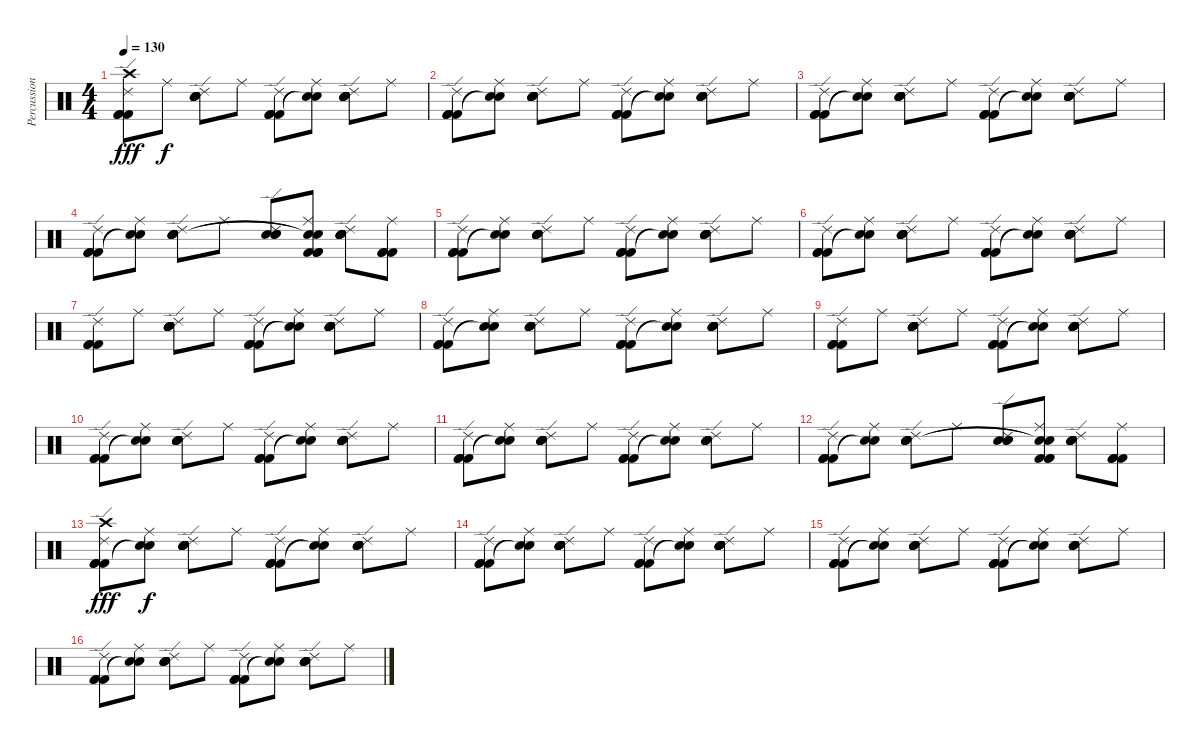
\track ("Percussion" "Percussion") {instrument percussion}
\staff {score}
\articulation defaults
\ts (4 4)
\tempo 130
\clef neutral
\ks c
("Ride (edge) 2" "Kick (hit) 2" "Kick (hit) 2" "Kick (hit) 2" "Crash high (hit)").8{dy fff} "Ride (middle)".8{dy f} ("Ride (edge) 2" "Electric Snare (hit)" "Electric Snare (hit)" "Electric Snare (hit)" "Hand Clap (hit)" "Hand Clap (hit)").8 "Ride (middle)".8 ("Ride (edge) 2" "Kick (hit) 2" "Kick (hit) 2" "Kick (hit) 2").8 ("Ride (middle)" "Snare (hit)"{t} "Snare (hit)"{t}).8 ("Ride (edge) 2" "Electric Snare (hit)" "Electric Snare (hit)" "Electric Snare (hit)" "Hand Clap (hit)" "Hand Clap (hit)").8 "Ride (middle)".8 |
("Ride (edge) 2" "Kick (hit) 2" "Kick (hit) 2" "Kick (hit) 2").8 ("Ride (middle)" "Snare (hit)"{t} "Snare (hit)"{t}).8 ("Ride (edge) 2" "Electric Snare (hit)" "Electric Snare (hit)" "Electric Snare (hit)" "Hand Clap (hit)" "Hand Clap (hit)").8 "Ride (middle)".8 ("Ride (edge) 2" "Kick (hit) 2" "Kick (hit) 2" "Kick (hit) 2").8 ("Ride (middle)" "Snare (hit)"{t} "Snare (hit)"{t}).8 ("Ride (edge) 2" "Electric Snare (hit)" "Electric Snare (hit)" "Electric Snare (hit)" "Hand Clap (hit)" "Hand Clap (hit)").8 "Ride (middle)".8 |
("Ride (edge) 2" "Kick (hit) 2" "Kick (hit) 2" "Kick (hit) 2").8 ("Ride (middle)" "Snare (hit)"{t} "Snare (hit)"{t}).8 ("Ride (edge) 2" "Electric Snare (hit)" "Electric Snare (hit)" "Electric Snare (hit)" "Hand Clap (hit)" "Hand Clap (hit)").8 "Ride (middle)".8 ("Ride (edge) 2" "Kick (hit) 2" "Kick (hit) 2" "Kick (hit) 2").8 ("Ride (middle)" "Snare (hit)"{t} "Snare (hit)"{t}).8 ("Ride (edge) 2" "Electric Snare (hit)" "Electric Snare (hit)" "Electric Snare (hit)" "Hand Clap (hit)" "Hand Clap (hit)").8 "Ride (middle)".8 |
("Ride (edge) 2" "Kick (hit) 2" "Kick (hit) 2" "Kick (hit) 2").8 ("Ride (middle)" "Snare (hit)"{t} "Snare (hit)"{t}).8 ("Ride (edge) 2" "Electric Snare (hit)" "Electric Snare (hit)" "Electric Snare (hit)" "Hand Clap (hit)" "Hand Clap (hit)").8 "Ride (middle)".8 ("Ride (edge) 2" "Electric Snare (hit)" "Electric Snare (hit)" "Electric Snare (hit)").8 ("Ride (middle)" "Kick (hit) 2" "Kick (hit) 2" "Kick (hit) 2" "Snare (hit)"{t} "Snare (hit)"{t}).8 ("Ride (edge) 2" "Electric Snare (hit)" "Electric Snare (hit)" "Electric Snare (hit)" "Hand Clap (hit)" "Hand Clap (hit)").8 ("Ride (middle)" "Kick (hit) 2" "Kick (hit) 2" "Kick (hit) 2").8 |
("Ride (edge) 2" "Kick (hit) 2" "Kick (hit) 2" "Kick (hit) 2").8 ("Ride (middle)" "Snare (hit)"{t} "Snare (hit)"{t}).8 ("Ride (edge) 2" "Electric Snare (hit)" "Electric Snare (hit)" "Electric Snare (hit)" "Hand Clap (hit)" "Hand Clap (hit)").8 "Ride (middle)".8 ("Ride (edge) 2" "Kick (hit) 2" "Kick (hit) 2" "Kick (hit) 2").8 ("Ride (middle)" "Snare (hit)"{t} "Snare (hit)"{t}).8 ("Ride (edge) 2" "Electric Snare (hit)" "Electric Snare (hit)" "Electric Snare (hit)" "Hand Clap (hit)" "Hand Clap (hit)").8 "Ride (middle)".8 |
("Ride (edge) 2" "Kick (hit) 2" "Kick (hit) 2" "Kick (hit) 2").8 ("Ride (middle)" "Snare (hit)"{t} "Snare (hit)"{t}).8 ("Ride (edge) 2" "Electric Snare (hit)" "Electric Snare (hit)" "Electric Snare (hit)" "Hand Clap (hit)" "Hand Clap (hit)").8 "Ride (middle)".8 ("Ride (edge) 2" "Kick (hit) 2" "Kick (hit) 2" "Kick (hit) 2").8 ("Ride (middle)" "Snare (hit)"{t} "Snare (hit)"{t}).8 ("Ride (edge) 2" "Electric Snare (hit)" "Electric Snare (hit)" "Electric Snare (hit)" "Hand Clap (hit)" "Hand Clap (hit)").8 "Ride (middle)".8 |
("Ride (edge) 2" "Kick (hit) 2" "Kick (hit) 2" "Kick (hit) 2").8 "Ride (middle)".8 ("Ride (edge) 2" "Electric Snare (hit)" "Electric Snare (hit)" "Electric Snare (hit)" "Hand Clap (hit)" "Hand Clap (hit)").8 "Ride (middle)".8 ("Ride (edge) 2" "Kick (hit) 2" "Kick (hit) 2" "Kick (hit) 2").8 ("Ride (middle)" "Snare (hit)"{t} "Snare (hit)"{t}).8 ("Ride (edge) 2" "Electric Snare (hit)" "Electric Snare (hit)" "Electric Snare (hit)" "Hand Clap (hit)" "Hand Clap (hit)").8 "Ride (middle)".8 |
("Ride (edge) 2" "Kick (hit) 2" "Kick (hit) 2" "Kick (hit) 2").8 ("Ride (middle)" "Snare (hit)"{t} "Snare (hit)"{t}).8 ("Ride (edge) 2" "Electric Snare (hit)" "Electric Snare (hit)" "Electric Snare (hit)" "Hand Clap (hit)" "Hand Clap (hit)").8 "Ride (middle)".8 ("Ride (edge) 2" "Kick (hit) 2" "Kick (hit) 2" "Kick (hit) 2").8 ("Ride (middle)" "Snare (hit)"{t} "Snare (hit)"{t}).8 ("Ride (edge) 2" "Electric Snare (hit)" "Electric Snare (hit)" "Electric Snare (hit)" "Hand Clap (hit)" "Hand Clap (hit)").8 "Ride (middle)".8 |
("Ride (edge) 2" "Kick (hit) 2" "Kick (hit) 2" "Kick (hit) 2").8 "Ride (middle)".8 ("Ride (edge) 2" "Electric Snare (hit)" "Electric Snare (hit)" "Electric Snare (hit)" "Hand Clap (hit)" "Hand Clap (hit)").8 "Ride (middle)".8 ("Ride (edge) 2" "Kick (hit) 2" "Kick (hit) 2" "Kick (hit) 2").8 ("Ride (middle)" "Snare (hit)"{t} "Snare (hit)"{t}).8 ("Ride (edge) 2" "Electric Snare (hit)" "Electric Snare (hit)" "Electric Snare (hit)" "Hand Clap (hit)" "Hand Clap (hit)").8 "Ride (middle)".8 |
("Ride (edge) 2" "Kick (hit) 2" "Kick (hit) 2" "Kick (hit) 2").8 ("Ride (middle)" "Snare (hit)"{t} "Snare (hit)"{t}).8 ("Ride (edge) 2" "Electric Snare (hit)" "Electric Snare (hit)" "Electric Snare (hit)" "Hand Clap (hit)" "Hand Clap (hit)").8 "Ride (middle)".8 ("Ride (edge) 2" "Kick (hit) 2" "Kick (hit) 2" "Kick (hit) 2").8 ("Ride (middle)" "Snare (hit)"{t} "Snare (hit)"{t}).8 ("Ride (edge) 2" "Electric Snare (hit)" "Electric Snare (hit)" "Electric Snare (hit)" "Hand Clap (hit)" "Hand Clap (hit)").8 "Ride (middle)".8 |
("Ride (edge) 2" "Kick (hit) 2" "Kick (hit) 2" "Kick (hit) 2").8 ("Ride (middle)" "Snare (hit)"{t} "Snare (hit)"{t}).8 ("Ride (edge) 2" "Electric Snare (hit)" "Electric Snare (hit)" "Electric Snare (hit)" "Hand Clap (hit)" "Hand Clap (hit)").8 "Ride (middle)".8 ("Ride (edge) 2" "Kick (hit) 2" "Kick (hit) 2" "Kick (hit) 2").8 ("Ride (middle)" "Snare (hit)"{t} "Snare (hit)"{t}).8 ("Ride (edge) 2" "Electric Snare (hit)" "Electric Snare (hit)" "Electric Snare (hit)" "Hand Clap (hit)" "Hand Clap (hit)").8 "Ride (middle)".8 |
("Ride (edge) 2" "Kick (hit) 2" "Kick (hit) 2" "Kick (hit) 2").8 ("Ride (middle)" "Snare (hit)"{t} "Snare (hit)"{t}).8 ("Ride (edge) 2" "Electric Snare (hit)" "Electric Snare (hit)" "Electric Snare (hit)" "Hand Clap (hit)" "Hand Clap (hit)").8 "Ride (middle)".8 ("Ride (edge) 2" "Electric Snare (hit)" "Electric Snare (hit)" "Electric Snare (hit)").8 ("Ride (middle)" "Kick (hit) 2" "Kick (hit) 2" "Kick (hit) 2" "Snare (hit)"{t} "Snare (hit)"{t}).8 ("Ride (edge) 2" "Electric Snare (hit)" "Electric Snare (hit)" "Electric Snare (hit)" "Hand Clap (hit)" "Hand Clap (hit)").8 ("Ride (middle)" "Kick (hit) 2" "Kick (hit) 2" "Kick (hit) 2").8 |
("Ride (edge) 2" "Kick (hit) 2" "Kick (hit) 2" "Kick (hit) 2" "Crash high (hit)").8{dy fff} ("Ride (middle)" "Snare (hit)"{t} "Snare (hit)"{t}).8{dy f} ("Ride (edge) 2" "Electric Snare (hit)" "Electric Snare (hit)" "Electric Snare (hit)" "Hand Clap (hit)" "Hand Clap (hit)").8 "Ride (middle)".8 ("Ride (edge) 2" "Kick (hit) 2" "Kick (hit) 2" "Kick (hit) 2").8 ("Ride (middle)" "Snare (hit)"{t} "Snare (hit)"{t}).8 ("Ride (edge) 2" "Electric Snare (hit)" "Electric Snare (hit)" "Electric Snare (hit)" "Hand Clap (hit)" "Hand Clap (hit)").8 "Ride (middle)".8 |
("Ride (edge) 2" "Kick (hit) 2" "Kick (hit) 2" "Kick (hit) 2").8 ("Ride (middle)" "Snare (hit)"{t} "Snare (hit)"{t}).8 ("Ride (edge) 2" "Electric Snare (hit)" "Electric Snare (hit)" "Electric Snare (hit)" "Hand Clap (hit)" "Hand Clap (hit)").8 "Ride (middle)".8 ("Ride (edge) 2" "Kick (hit) 2" "Kick (hit) 2" "Kick (hit) 2").8 ("Ride (middle)" "Snare (hit)"{t} "Snare (hit)"{t}).8 ("Ride (edge) 2" "Electric Snare (hit)" "Electric Snare (hit)" "Electric Snare (hit)" "Hand Clap (hit)" "Hand Clap (hit)").8 "Ride (middle)".8 |
("Ride (edge) 2" "Kick (hit) 2" "Kick (hit) 2" "Kick (hit) 2").8 ("Ride (middle)" "Snare (hit)"{t} "Snare (hit)"{t}).8 ("Ride (edge) 2" "Electric Snare (hit)" "Electric Snare (hit)" "Electric Snare (hit)" "Hand Clap (hit)" "Hand Clap (hit)").8 "Ride (middle)".8 ("Ride (edge) 2" "Kick (hit) 2" "Kick (hit) 2" "Kick (hit) 2").8 ("Ride (middle)" "Snare (hit)"{t} "Snare (hit)"{t}).8 ("Ride (edge) 2" "Electric Snare (hit)" "Electric Snare (hit)" "Electric Snare (hit)" "Hand Clap (hit)" "Hand Clap (hit)").8 "Ride (middle)".8 |
("Ride (edge) 2" "Kick (hit) 2" "Kick (hit) 2" "Kick (hit) 2").8 ("Ride (middle)" "Snare (hit)"{t} "Snare (hit)"{t}).8 ("Ride (edge) 2" "Electric Snare (hit)" "Electric Snare (hit)" "Electric Snare (hit)" "Hand Clap (hit)" "Hand Clap (hit)").8 "Ride (middle)".8 ("Ride (edge) 2" "Kick (hit) 2" "Kick (hit) 2" "Kick (hit) 2").8 ("Ride (middle)" "Snare (hit)"{t} "Snare (hit)"{t}).8 ("Ride (edge) 2" "Electric Snare (hit)" "Electric Snare (hit)" "Electric Snare (hit)" "Hand Clap (hit)" "Hand Clap (hit)").8 "Ride (middle)".8
